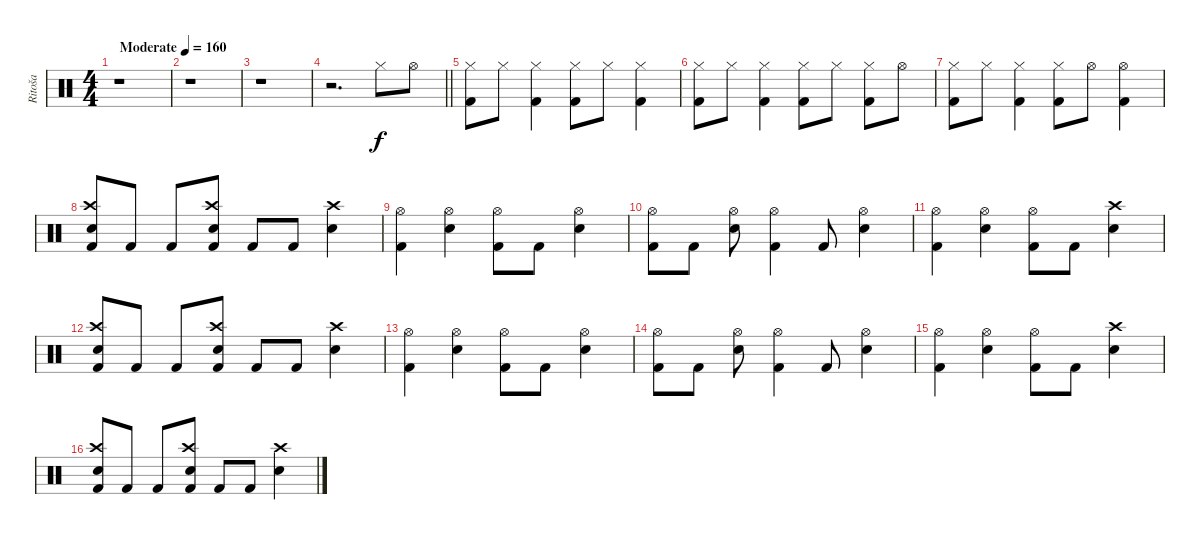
\track ("Ritoša" "Ritoša") {instrument percussion}
\staff {score}
\articulation defaults
\ts (4 4)
\tempo (160 "Moderate")
\clef neutral
\ks c
r.1{dy f} |
r.1 |
r.1 |
\barLineRight lightlight
r.2{d} "Hi-Hat (closed)".8 "Hi-Hat (open)".8 |
("Hi-Hat (closed)" "Kick (hit) 2").8 "Hi-Hat (closed)".8 ("Hi-Hat (closed)" "Kick (hit) 2").4 ("Hi-Hat (closed)" "Kick (hit) 2").8 "Hi-Hat (closed)".8 ("Hi-Hat (closed)" "Kick (hit) 2").4 |
("Hi-Hat (closed)" "Kick (hit) 2").8 "Hi-Hat (closed)".8 ("Hi-Hat (closed)" "Kick (hit) 2").4 ("Hi-Hat (closed)" "Kick (hit) 2").8 "Hi-Hat (closed)".8 ("Hi-Hat (closed)" "Kick (hit) 2").8 "Hi-Hat (open)".8 |
("Hi-Hat (closed)" "Kick (hit) 2").8 "Hi-Hat (closed)".8 ("Hi-Hat (closed)" "Kick (hit) 2").4 ("Hi-Hat (closed)" "Kick (hit) 2").8 "Hi-Hat (open)".8 ("Hi-Hat (open)" "Kick (hit) 2").4 |
("Crash high (hit)" "Electric Snare (hit)" "Kick (hit) 2").8 "Kick (hit) 2".8 "Kick (hit) 2".8 ("Crash high (hit)" "Electric Snare (hit)" "Kick (hit) 2").8 "Kick (hit) 2".8 "Kick (hit) 2".8 ("Crash high (hit)" "Electric Snare (hit)").4 |
("Hi-Hat (open)" "Kick (hit) 2").4 ("Hi-Hat (open)" "Electric Snare (hit)").4 ("Hi-Hat (open)" "Kick (hit) 2").8 "Kick (hit) 2".8 ("Hi-Hat (open)" "Electric Snare (hit)").4 |
("Hi-Hat (open)" "Kick (hit) 2").8 "Kick (hit) 2".8 ("Hi-Hat (open)" "Electric Snare (hit)").8 ("Hi-Hat (open)" "Kick (hit) 2").4 "Kick (hit) 2".8 ("Hi-Hat (open)" "Electric Snare (hit)").4 |
("Hi-Hat (open)" "Kick (hit) 2").4 ("Hi-Hat (open)" "Electric Snare (hit)").4 ("Hi-Hat (open)" "Kick (hit) 2").8 "Kick (hit) 2".8 ("Crash high (hit)" "Electric Snare (hit)").4 |
("Crash high (hit)" "Electric Snare (hit)" "Kick (hit) 2").8 "Kick (hit) 2".8 "Kick (hit) 2".8 ("Crash high (hit)" "Electric Snare (hit)" "Kick (hit) 2").8 "Kick (hit) 2".8 "Kick (hit) 2".8 ("Crash high (hit)" "Electric Snare (hit)").4 |
("Hi-Hat (open)" "Kick (hit) 2").4 ("Hi-Hat (open)" "Electric Snare (hit)").4 ("Hi-Hat (open)" "Kick (hit) 2").8 "Kick (hit) 2".8 ("Hi-Hat (open)" "Electric Snare (hit)").4 |
("Hi-Hat (open)" "Kick (hit) 2").8 "Kick (hit) 2".8 ("Hi-Hat (open)" "Electric Snare (hit)").8 ("Hi-Hat (open)" "Kick (hit) 2").4 "Kick (hit) 2".8 ("Hi-Hat (open)" "Electric Snare (hit)").4 |
("Hi-Hat (open)" "Kick (hit) 2").4 ("Hi-Hat (open)" "Electric Snare (hit)").4 ("Hi-Hat (open)" "Kick (hit) 2").8 "Kick (hit) 2".8 ("Crash high (hit)" "Electric Snare (hit)").4 |
("Crash high (hit)" "Electric Snare (hit)" "Kick (hit) 2").8 "Kick (hit) 2".8 "Kick (hit) 2".8 ("Crash high (hit)" "Electric Snare (hit)" "Kick (hit) 2").8 "Kick (hit) 2".8 "Kick (hit) 2".8 ("Crash high (hit)" "Electric Snare (hit)").4
